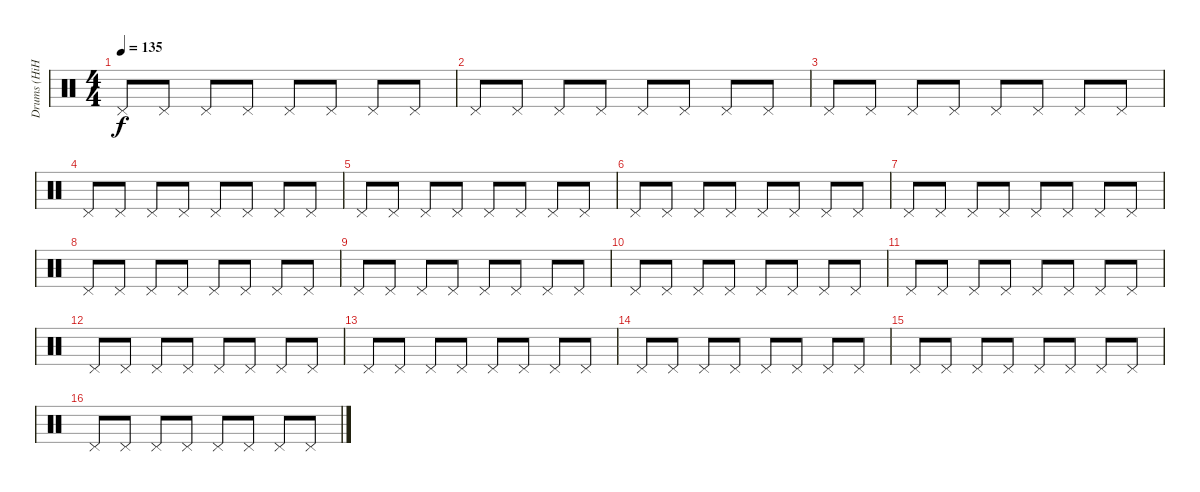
\track ("Drums (HiHat)" "Drums (HiH") {instrument percussion}
\staff {score}
\articulation defaults
\ts (4 4)
\tempo 135
\clef neutral
\ks c "Pedal Hi-Hat (hit)".8{dy f} "Pedal Hi-Hat (hit)".8 "Pedal Hi-Hat (hit)".8 "Pedal Hi-Hat (hit)".8 "Pedal Hi-Hat (hit)".8 "Pedal Hi-Hat (hit)".8 "Pedal Hi-Hat (hit)".8 "Pedal Hi-Hat (hit)".8
|
"Pedal Hi-Hat (hit)".8 "Pedal Hi-Hat (hit)".8 "Pedal Hi-Hat (hit)".8 "Pedal Hi-Hat (hit)".8 "Pedal Hi-Hat (hit)".8 "Pedal Hi-Hat (hit)".8 "Pedal Hi-Hat (hit)".8 "Pedal Hi-Hat (hit)".8 |
"Pedal Hi-Hat (hit)".8 "Pedal Hi-Hat (hit)".8 "Pedal Hi-Hat (hit)".8 "Pedal Hi-Hat (hit)".8 "Pedal Hi-Hat (hit)".8 "Pedal Hi-Hat (hit)".8 "Pedal Hi-Hat (hit)".8 "Pedal Hi-Hat (hit)".8 |
"Pedal Hi-Hat (hit)".8 "Pedal Hi-Hat (hit)".8 "Pedal Hi-Hat (hit)".8 "Pedal Hi-Hat (hit)".8 "Pedal Hi-Hat (hit)".8 "Pedal Hi-Hat (hit)".8 "Pedal Hi-Hat (hit)".8 "Pedal Hi-Hat (hit)".8 |
"Pedal Hi-Hat (hit)".8 "Pedal Hi-Hat (hit)".8 "Pedal Hi-Hat (hit)".8 "Pedal Hi-Hat (hit)".8 "Pedal Hi-Hat (hit)".8 "Pedal Hi-Hat (hit)".8 "Pedal Hi-Hat (hit)".8 "Pedal Hi-Hat (hit)".8 |
"Pedal Hi-Hat (hit)".8 "Pedal Hi-Hat (hit)".8 "Pedal Hi-Hat (hit)".8 "Pedal Hi-Hat (hit)".8 "Pedal Hi-Hat (hit)".8 "Pedal Hi-Hat (hit)".8 "Pedal Hi-Hat (hit)".8 "Pedal Hi-Hat (hit)".8 |
"Pedal Hi-Hat (hit)".8 "Pedal Hi-Hat (hit)".8 "Pedal Hi-Hat (hit)".8 "Pedal Hi-Hat (hit)".8 "Pedal Hi-Hat (hit)".8 "Pedal Hi-Hat (hit)".8 "Pedal Hi-Hat (hit)".8 "Pedal Hi-Hat (hit)".8 |
"Pedal Hi-Hat (hit)".8 "Pedal Hi-Hat (hit)".8 "Pedal Hi-Hat (hit)".8 "Pedal Hi-Hat (hit)".8 "Pedal Hi-Hat (hit)".8 "Pedal Hi-Hat (hit)".8 "Pedal Hi-Hat (hit)".8 "Pedal Hi-Hat (hit)".8 |
"Pedal Hi-Hat (hit)".8 "Pedal Hi-Hat (hit)".8 "Pedal Hi-Hat (hit)".8 "Pedal Hi-Hat (hit)".8 "Pedal Hi-Hat (hit)".8 "Pedal Hi-Hat (hit)".8 "Pedal Hi-Hat (hit)".8 "Pedal Hi-Hat (hit)".8 |
"Pedal Hi-Hat (hit)".8 "Pedal Hi-Hat (hit)".8 "Pedal Hi-Hat (hit)".8 "Pedal Hi-Hat (hit)".8 "Pedal Hi-Hat (hit)".8 "Pedal Hi-Hat (hit)".8 "Pedal Hi-Hat (hit)".8 "Pedal Hi-Hat (hit)".8 |
"Pedal Hi-Hat (hit)".8 "Pedal Hi-Hat (hit)".8 "Pedal Hi-Hat (hit)".8 "Pedal Hi-Hat (hit)".8 "Pedal Hi-Hat (hit)".8 "Pedal Hi-Hat (hit)".8 "Pedal Hi-Hat (hit)".8 "Pedal Hi-Hat (hit)".8 |
"Pedal Hi-Hat (hit)".8 "Pedal Hi-Hat (hit)".8 "Pedal Hi-Hat (hit)".8 "Pedal Hi-Hat (hit)".8 "Pedal Hi-Hat (hit)".8 "Pedal Hi-Hat (hit)".8 "Pedal Hi-Hat (hit)".8 "Pedal Hi-Hat (hit)".8 |
"Pedal Hi-Hat (hit)".8 "Pedal Hi-Hat (hit)".8 "Pedal Hi-Hat (hit)".8 "Pedal Hi-Hat (hit)".8 "Pedal Hi-Hat (hit)".8 "Pedal Hi-Hat (hit)".8 "Pedal Hi-Hat (hit)".8 "Pedal Hi-Hat (hit)".8 |
"Pedal Hi-Hat (hit)".8 "Pedal Hi-Hat (hit)".8 "Pedal Hi-Hat (hit)".8 "Pedal Hi-Hat (hit)".8 "Pedal Hi-Hat (hit)".8 "Pedal Hi-Hat (hit)".8 "Pedal Hi-Hat (hit)".8 "Pedal Hi-Hat (hit)".8 |
"Pedal Hi-Hat (hit)".8 "Pedal Hi-Hat (hit)".8 "Pedal Hi-Hat (hit)".8 "Pedal Hi-Hat (hit)".8 "Pedal Hi-Hat (hit)".8 "Pedal Hi-Hat (hit)".8 "Pedal Hi-Hat (hit)".8 "Pedal Hi-Hat (hit)".8 |
"Pedal Hi-Hat (hit)".8 "Pedal Hi-Hat (hit)".8 "Pedal Hi-Hat (hit)".8 "Pedal Hi-Hat (hit)".8 "Pedal Hi-Hat (hit)".8 "Pedal Hi-Hat (hit)".8 "Pedal Hi-Hat (hit)".8 "Pedal Hi-Hat (hit)".8
